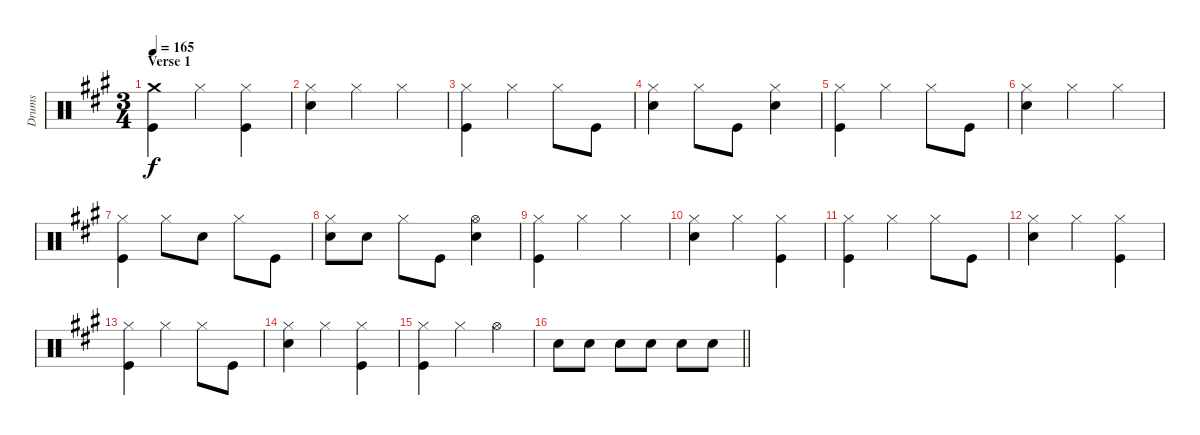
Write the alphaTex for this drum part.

\track ("Drums" "Drums") {instrument percussion}
\staff {score}
\articulation defaults
\ts (3 4)
\section ("" "Verse 1")
\tempo 165
\clef neutral
\ks a
("Crash medium (hit)" "Kick (hit)").4{dy f} "Hi-Hat (closed)".4 ("Hi-Hat (closed)" "Kick (hit)").4 |
("Hi-Hat (closed)" "Snare (hit) 2").4 "Hi-Hat (closed)".4 "Hi-Hat (closed)".4 |
("Hi-Hat (closed)" "Kick (hit)").4 "Hi-Hat (closed)".4 "Hi-Hat (closed)".8 "Kick (hit)".8 |
("Hi-Hat (closed)" "Snare (hit) 2").4 "Hi-Hat (closed)".8 "Kick (hit)".8 ("Hi-Hat (closed)" "Snare (hit) 2").4 |
("Hi-Hat (closed)" "Kick (hit)").4 "Hi-Hat (closed)".4 "Hi-Hat (closed)".8 "Kick (hit)".8 |
("Hi-Hat (closed)" "Snare (hit) 2").4 "Hi-Hat (closed)".4 "Hi-Hat (closed)".4 |
("Hi-Hat (closed)" "Kick (hit)").4 "Hi-Hat (closed)".8 "Snare (hit) 2".8 "Hi-Hat (closed)".8 "Kick (hit)".8 |
("Hi-Hat (closed)" "Snare (hit) 2").8 "Snare (hit) 2".8 "Hi-Hat (closed)".8 "Kick (hit)".8 ("Hi-Hat (open)" "Snare (hit) 2").4 |
("Hi-Hat (closed)" "Kick (hit)").4 "Hi-Hat (closed)".4 "Hi-Hat (closed)".4 |
("Hi-Hat (closed)" "Snare (hit) 2").4 "Hi-Hat (closed)".4 ("Hi-Hat (closed)" "Kick (hit)").4 |
("Hi-Hat (closed)" "Kick (hit)").4 "Hi-Hat (closed)".4 "Hi-Hat (closed)".8 "Kick (hit)".8 |
("Hi-Hat (closed)" "Snare (hit) 2").4 "Hi-Hat (closed)".4 ("Hi-Hat (closed)" "Kick (hit)").4 |
("Hi-Hat (closed)" "Kick (hit)").4 "Hi-Hat (closed)".4 "Hi-Hat (closed)".8 "Kick (hit)".8 |
("Hi-Hat (closed)" "Snare (hit) 2").4 "Hi-Hat (closed)".4 ("Hi-Hat (closed)" "Kick (hit)").4 |
("Hi-Hat (closed)" "Kick (hit)").4 "Hi-Hat (closed)".4 "Hi-Hat (open)".4 |
\barLineRight lightlight "Snare (hit) 2".8 "Snare (hit) 2".8 "Snare (hit) 2".8 "Snare (hit) 2".8 "Snare (hit) 2".8 "Snare (hit) 2".8
